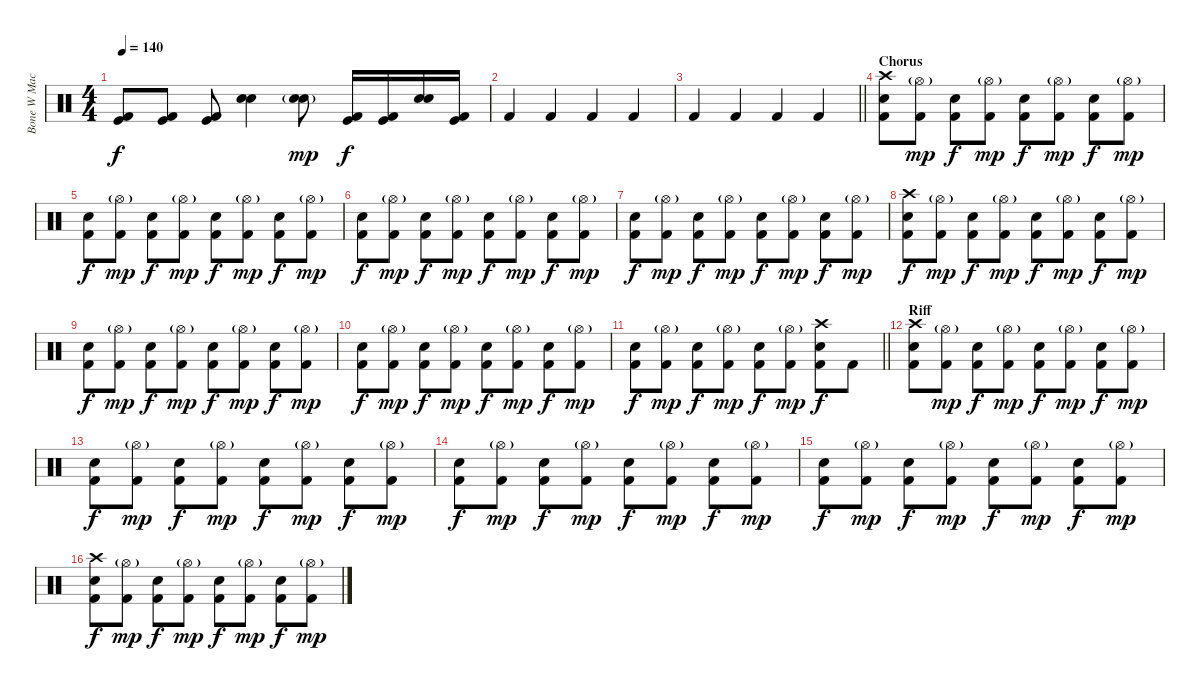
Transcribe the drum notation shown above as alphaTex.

\track ("Bone W Machine" "Bone W Mac") {instrument percussion}
\staff {score}
\articulation defaults
\ts (4 4)
\tempo 140
\clef neutral
\ks c
("Kick (hit)" "Kick (hit) 2").8{dy f} ("Kick (hit)" "Kick (hit) 2").8 ("Kick (hit)" "Kick (hit) 2").8 ("Snare (hit) 2" "Electric Snare (hit)").4 ("Snare (hit) 2"{g} "Electric Snare (hit)"{g}).8{dy mp} ("Kick (hit)" "Kick (hit) 2").16{dy f} ("Kick (hit)" "Kick (hit) 2").16 ("Snare (hit) 2" "Electric Snare (hit)").16 ("Kick (hit)" "Kick (hit) 2").16 |
"Kick (hit) 2".4 "Kick (hit) 2".4 "Kick (hit) 2".4 "Kick (hit) 2".4 |
\barLineRight lightlight "Kick (hit) 2".4 "Kick (hit) 2".4 "Kick (hit) 2".4 "Kick (hit) 2".4
|
\section ("" "Chorus")
("Crash high (hit)" "Electric Snare (hit)" "Kick (hit) 2").8 ("Hi-Hat (open)"{g} "Kick (hit) 2").8{dy mp} ("Electric Snare (hit)" "Kick (hit) 2").8{dy f} ("Hi-Hat (open)"{g} "Kick (hit) 2").8{dy mp} ("Electric Snare (hit)" "Kick (hit) 2").8{dy f} ("Hi-Hat (open)"{g} "Kick (hit) 2").8{dy mp} ("Electric Snare (hit)" "Kick (hit) 2").8{dy f} ("Hi-Hat (open)"{g} "Kick (hit) 2").8{dy mp} |
("Electric Snare (hit)" "Kick (hit) 2").8{dy f} ("Hi-Hat (open)"{g} "Kick (hit) 2").8{dy mp} ("Electric Snare (hit)" "Kick (hit) 2").8{dy f} ("Hi-Hat (open)"{g} "Kick (hit) 2").8{dy mp} ("Electric Snare (hit)" "Kick (hit) 2").8{dy f} ("Hi-Hat (open)"{g} "Kick (hit) 2").8{dy mp} ("Electric Snare (hit)" "Kick (hit) 2").8{dy f} ("Hi-Hat (open)"{g} "Kick (hit) 2").8{dy mp} |
("Electric Snare (hit)" "Kick (hit) 2").8{dy f} ("Hi-Hat (open)"{g} "Kick (hit) 2").8{dy mp} ("Electric Snare (hit)" "Kick (hit) 2").8{dy f} ("Hi-Hat (open)"{g} "Kick (hit) 2").8{dy mp} ("Electric Snare (hit)" "Kick (hit) 2").8{dy f} ("Hi-Hat (open)"{g} "Kick (hit) 2").8{dy mp} ("Electric Snare (hit)" "Kick (hit) 2").8{dy f} ("Hi-Hat (open)"{g} "Kick (hit) 2").8{dy mp} |
("Electric Snare (hit)" "Kick (hit) 2").8{dy f} ("Hi-Hat (open)"{g} "Kick (hit) 2").8{dy mp} ("Electric Snare (hit)" "Kick (hit) 2").8{dy f} ("Hi-Hat (open)"{g} "Kick (hit) 2").8{dy mp} ("Electric Snare (hit)" "Kick (hit) 2").8{dy f} ("Hi-Hat (open)"{g} "Kick (hit) 2").8{dy mp} ("Electric Snare (hit)" "Kick (hit) 2").8{dy f} ("Hi-Hat (open)"{g} "Kick (hit) 2").8{dy mp} |
("Crash high (hit)" "Electric Snare (hit)" "Kick (hit) 2").8{dy f} ("Hi-Hat (open)"{g} "Kick (hit) 2").8{dy mp} ("Electric Snare (hit)" "Kick (hit) 2").8{dy f} ("Hi-Hat (open)"{g} "Kick (hit) 2").8{dy mp} ("Electric Snare (hit)" "Kick (hit) 2").8{dy f} ("Hi-Hat (open)"{g} "Kick (hit) 2").8{dy mp} ("Electric Snare (hit)" "Kick (hit) 2").8{dy f} ("Hi-Hat (open)"{g} "Kick (hit) 2").8{dy mp} |
("Electric Snare (hit)" "Kick (hit) 2").8{dy f} ("Hi-Hat (open)"{g} "Kick (hit) 2").8{dy mp} ("Electric Snare (hit)" "Kick (hit) 2").8{dy f} ("Hi-Hat (open)"{g} "Kick (hit) 2").8{dy mp} ("Electric Snare (hit)" "Kick (hit) 2").8{dy f} ("Hi-Hat (open)"{g} "Kick (hit) 2").8{dy mp} ("Electric Snare (hit)" "Kick (hit) 2").8{dy f} ("Hi-Hat (open)"{g} "Kick (hit) 2").8{dy mp} |
("Electric Snare (hit)" "Kick (hit) 2").8{dy f} ("Hi-Hat (open)"{g} "Kick (hit) 2").8{dy mp} ("Electric Snare (hit)" "Kick (hit) 2").8{dy f} ("Hi-Hat (open)"{g} "Kick (hit) 2").8{dy mp} ("Electric Snare (hit)" "Kick (hit) 2").8{dy f} ("Hi-Hat (open)"{g} "Kick (hit) 2").8{dy mp} ("Electric Snare (hit)" "Kick (hit) 2").8{dy f} ("Hi-Hat (open)"{g} "Kick (hit) 2").8{dy mp} |
\barLineRight lightlight
("Electric Snare (hit)" "Kick (hit) 2").8{dy f} ("Hi-Hat (open)"{g} "Kick (hit) 2").8{dy mp} ("Electric Snare (hit)" "Kick (hit) 2").8{dy f} ("Hi-Hat (open)"{g} "Kick (hit) 2").8{dy mp} ("Electric Snare (hit)" "Kick (hit) 2").8{dy f} ("Hi-Hat (open)"{g} "Kick (hit) 2").8{dy mp} ("Crash high (hit)" "Electric Snare (hit)" "Kick (hit) 2").8{dy f} "Kick (hit) 2".8 |
\section ("" "Riff")
("Crash high (hit)" "Electric Snare (hit)" "Kick (hit) 2").8 ("Hi-Hat (open)"{g} "Kick (hit) 2").8{dy mp} ("Electric Snare (hit)" "Kick (hit) 2").8{dy f} ("Hi-Hat (open)"{g} "Kick (hit) 2").8{dy mp} ("Electric Snare (hit)" "Kick (hit) 2").8{dy f} ("Hi-Hat (open)"{g} "Kick (hit) 2").8{dy mp} ("Electric Snare (hit)" "Kick (hit) 2").8{dy f} ("Hi-Hat (open)"{g} "Kick (hit) 2").8{dy mp} |
("Electric Snare (hit)" "Kick (hit) 2").8{dy f} ("Hi-Hat (open)"{g} "Kick (hit) 2").8{dy mp} ("Electric Snare (hit)" "Kick (hit) 2").8{dy f} ("Hi-Hat (open)"{g} "Kick (hit) 2").8{dy mp} ("Electric Snare (hit)" "Kick (hit) 2").8{dy f} ("Hi-Hat (open)"{g} "Kick (hit) 2").8{dy mp} ("Electric Snare (hit)" "Kick (hit) 2").8{dy f} ("Hi-Hat (open)"{g} "Kick (hit) 2").8{dy mp} |
("Electric Snare (hit)" "Kick (hit) 2").8{dy f} ("Hi-Hat (open)"{g} "Kick (hit) 2").8{dy mp} ("Electric Snare (hit)" "Kick (hit) 2").8{dy f} ("Hi-Hat (open)"{g} "Kick (hit) 2").8{dy mp} ("Electric Snare (hit)" "Kick (hit) 2").8{dy f} ("Hi-Hat (open)"{g} "Kick (hit) 2").8{dy mp} ("Electric Snare (hit)" "Kick (hit) 2").8{dy f} ("Hi-Hat (open)"{g} "Kick (hit) 2").8{dy mp} |
("Electric Snare (hit)" "Kick (hit) 2").8{dy f} ("Hi-Hat (open)"{g} "Kick (hit) 2").8{dy mp} ("Electric Snare (hit)" "Kick (hit) 2").8{dy f} ("Hi-Hat (open)"{g} "Kick (hit) 2").8{dy mp} ("Electric Snare (hit)" "Kick (hit) 2").8{dy f} ("Hi-Hat (open)"{g} "Kick (hit) 2").8{dy mp} ("Electric Snare (hit)" "Kick (hit) 2").8{dy f} ("Hi-Hat (open)"{g} "Kick (hit) 2").8{dy mp} |
("Crash high (hit)" "Electric Snare (hit)" "Kick (hit) 2").8{dy f} ("Hi-Hat (open)"{g} "Kick (hit) 2").8{dy mp} ("Electric Snare (hit)" "Kick (hit) 2").8{dy f} ("Hi-Hat (open)"{g} "Kick (hit) 2").8{dy mp} ("Electric Snare (hit)" "Kick (hit) 2").8{dy f} ("Hi-Hat (open)"{g} "Kick (hit) 2").8{dy mp} ("Electric Snare (hit)" "Kick (hit) 2").8{dy f} ("Hi-Hat (open)"{g} "Kick (hit) 2").8{dy mp}
